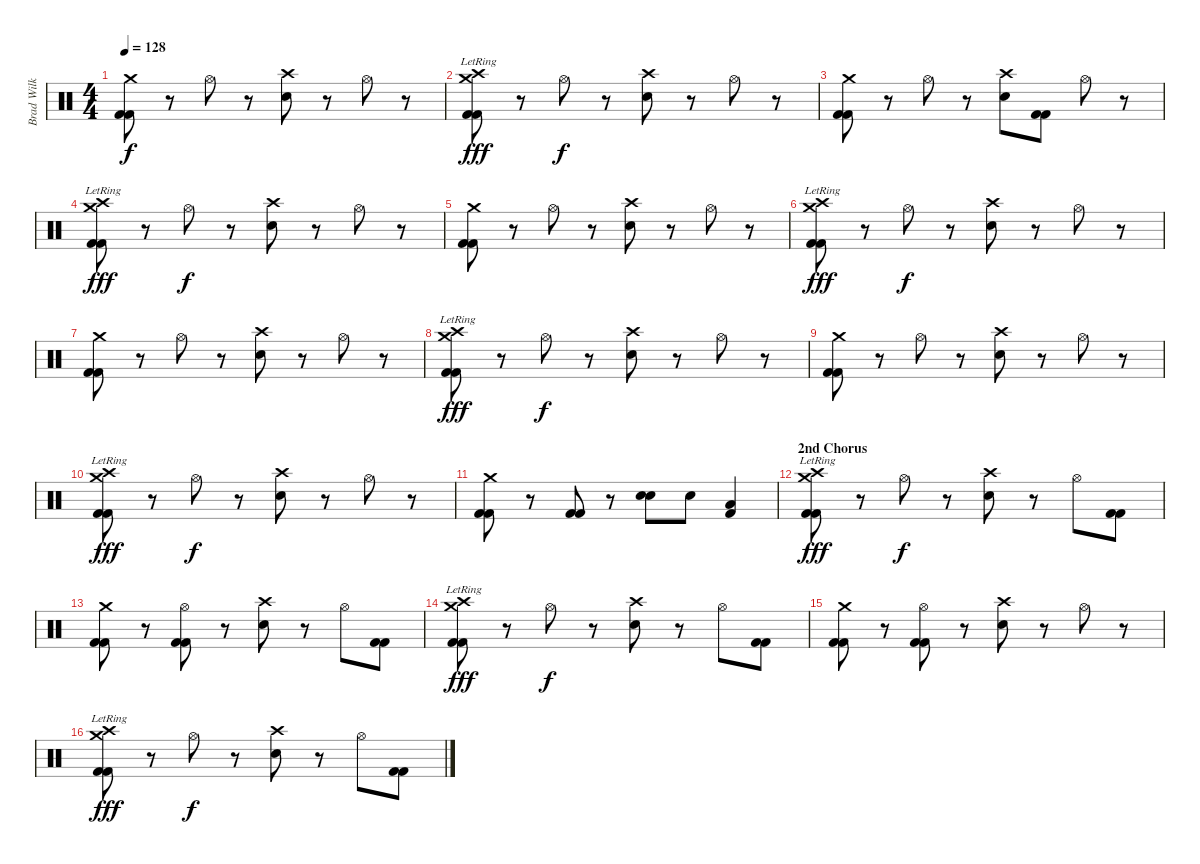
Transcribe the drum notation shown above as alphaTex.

\track ("Brad Wilk" "Brad Wilk") {instrument percussion}
\staff {score}
\articulation defaults
\ts (4 4)
\tempo 128
\clef neutral
\ks c
("Crash medium (hit)" "Kick (hit) 2" "Kick (hit) 2").8{dy f} r.8 "Hi-Hat (open)".8 r.8 ("Crash high (hit)" "Electric Snare (hit)").8 r.8 "Hi-Hat (open)".8 r.8 |
("Crash high (hit)"{lr} "Crash medium (hit)"{lr} "Kick (hit) 2" "Kick (hit) 2").8{dy fff} r.8 "Hi-Hat (open)".8{dy f} r.8 ("Crash high (hit)" "Electric Snare (hit)").8 r.8 "Hi-Hat (open)".8 r.8 |
("Crash medium (hit)" "Kick (hit) 2" "Kick (hit) 2").8 r.8 "Hi-Hat (open)".8 r.8 ("Crash high (hit)" "Electric Snare (hit)").8 ("Kick (hit) 2" "Kick (hit) 2").8 "Hi-Hat (open)".8 r.8 |
("Crash high (hit)"{lr} "Crash medium (hit)"{lr} "Kick (hit) 2" "Kick (hit) 2").8{dy fff} r.8 "Hi-Hat (open)".8{dy f} r.8 ("Crash high (hit)" "Electric Snare (hit)").8 r.8 "Hi-Hat (open)".8 r.8 |
("Crash medium (hit)" "Kick (hit) 2" "Kick (hit) 2").8 r.8 "Hi-Hat (open)".8 r.8 ("Crash high (hit)" "Electric Snare (hit)").8 r.8 "Hi-Hat (open)".8 r.8 |
("Crash high (hit)"{lr} "Crash medium (hit)"{lr} "Kick (hit) 2" "Kick (hit) 2").8{dy fff} r.8 "Hi-Hat (open)".8{dy f} r.8 ("Crash high (hit)" "Electric Snare (hit)").8 r.8 "Hi-Hat (open)".8 r.8 |
("Crash medium (hit)" "Kick (hit) 2" "Kick (hit) 2").8 r.8 "Hi-Hat (open)".8 r.8 ("Crash high (hit)" "Electric Snare (hit)").8 r.8 "Hi-Hat (open)".8 r.8 |
("Crash high (hit)"{lr} "Crash medium (hit)"{lr} "Kick (hit) 2" "Kick (hit) 2").8{dy fff} r.8 "Hi-Hat (open)".8{dy f} r.8 ("Crash high (hit)" "Electric Snare (hit)").8 r.8 "Hi-Hat (open)".8 r.8 |
("Crash medium (hit)" "Kick (hit) 2" "Kick (hit) 2").8 r.8 "Hi-Hat (open)".8 r.8 ("Crash high (hit)" "Electric Snare (hit)").8 r.8 "Hi-Hat (open)".8 r.8 |
("Crash high (hit)"{lr} "Crash medium (hit)"{lr} "Kick (hit) 2" "Kick (hit) 2").8{dy fff} r.8 "Hi-Hat (open)".8{dy f} r.8 ("Crash high (hit)" "Electric Snare (hit)").8 r.8 "Hi-Hat (open)".8 r.8 |
("Crash medium (hit)" "Kick (hit) 2" "Kick (hit) 2").8 r.8 ("Kick (hit) 2" "Kick (hit) 2").8 r.8 ("Electric Snare (hit)" "Electric Snare (hit)").8{bd 480} "Electric Snare (hit)".8 ("Low Tom (hit)" "Kick (hit) 2").4 |
\section ("" "2nd Chorus")
("Crash high (hit)"{lr} "Crash medium (hit)"{lr} "Kick (hit) 2" "Kick (hit) 2").8{dy fff} r.8 "Hi-Hat (open)".8{dy f} r.8 ("Crash high (hit)" "Electric Snare (hit)").8 r.8 "Hi-Hat (open)".8 ("Kick (hit) 2" "Kick (hit) 2").8 |
("Crash medium (hit)" "Kick (hit) 2" "Kick (hit) 2").8 r.8 ("Hi-Hat (open)" "Kick (hit) 2" "Kick (hit) 2").8 r.8 ("Crash high (hit)" "Electric Snare (hit)").8 r.8 "Hi-Hat (open)".8 ("Kick (hit) 2" "Kick (hit) 2").8 |
("Crash high (hit)"{lr} "Crash medium (hit)"{lr} "Kick (hit) 2" "Kick (hit) 2").8{dy fff} r.8 "Hi-Hat (open)".8{dy f} r.8 ("Crash high (hit)" "Electric Snare (hit)").8 r.8 "Hi-Hat (open)".8 ("Kick (hit) 2" "Kick (hit) 2").8 |
("Crash medium (hit)" "Kick (hit) 2" "Kick (hit) 2").8 r.8 ("Hi-Hat (open)" "Kick (hit) 2" "Kick (hit) 2").8 r.8 ("Crash high (hit)" "Electric Snare (hit)").8 r.8 "Hi-Hat (open)".8 r.8 |
("Crash high (hit)"{lr} "Crash medium (hit)"{lr} "Kick (hit) 2" "Kick (hit) 2").8{dy fff} r.8 "Hi-Hat (open)".8{dy f} r.8 ("Crash high (hit)" "Electric Snare (hit)").8 r.8 "Hi-Hat (open)".8 ("Kick (hit) 2" "Kick (hit) 2").8
